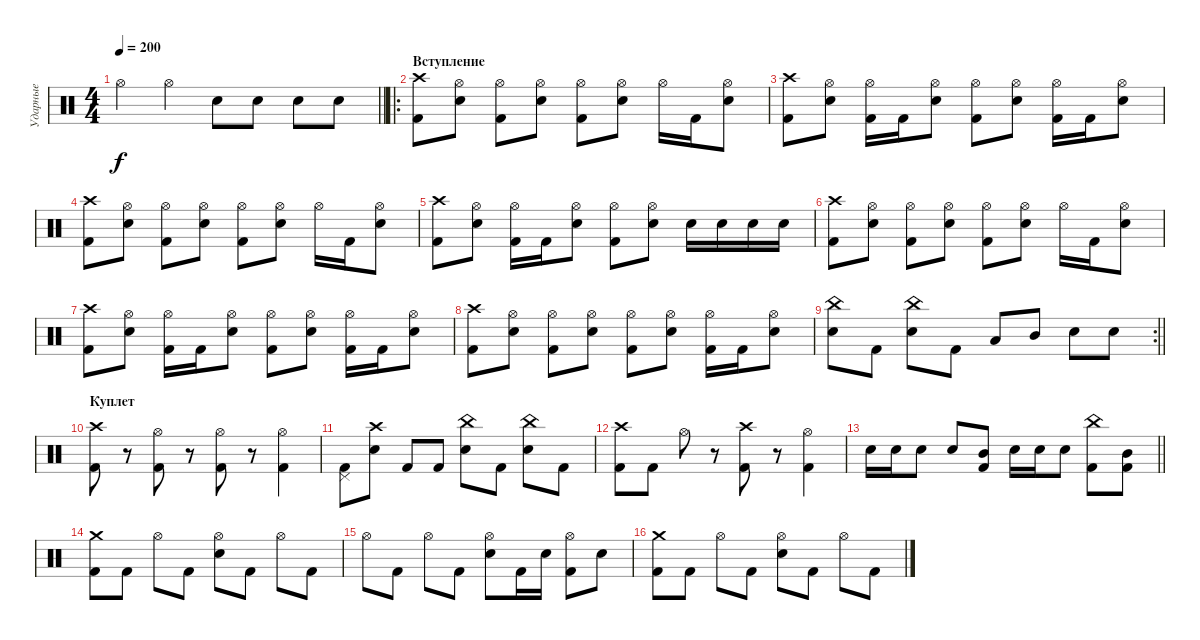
\track ("Ударные" "Ударные") {instrument percussion}
\staff {score}
\articulation defaults
\ts (4 4)
\tempo 200
\clef neutral
\barLineRight lightlight
\ks c "Hi-Hat (open)".4{dy f} "Hi-Hat (open)".4 "Electric Snare (hit)".8 "Electric Snare (hit)".8 "Electric Snare (hit)".8 "Electric Snare (hit)".8
|
\ro
\section ("" "Вступление")
("Crash high (hit)" "Kick (hit) 2").8 ("Hi-Hat (open)" "Electric Snare (hit)").8 ("Hi-Hat (open)" "Kick (hit) 2").8 ("Hi-Hat (open)" "Electric Snare (hit)").8 ("Hi-Hat (open)" "Kick (hit) 2").8 ("Hi-Hat (open)" "Electric Snare (hit)").8 "Hi-Hat (open)".16 "Kick (hit) 2".16 ("Hi-Hat (open)" "Electric Snare (hit)").8 |
("Crash high (hit)" "Kick (hit) 2").8 ("Hi-Hat (open)" "Electric Snare (hit)").8 ("Hi-Hat (open)" "Kick (hit) 2").16 "Kick (hit) 2".16 ("Hi-Hat (open)" "Electric Snare (hit)").8 ("Hi-Hat (open)" "Kick (hit) 2").8 ("Hi-Hat (open)" "Electric Snare (hit)").8 ("Hi-Hat (open)" "Kick (hit) 2").16 "Kick (hit) 2".16 ("Hi-Hat (open)" "Electric Snare (hit)").8 |
("Crash high (hit)" "Kick (hit) 2").8 ("Hi-Hat (open)" "Electric Snare (hit)").8 ("Hi-Hat (open)" "Kick (hit) 2").8 ("Hi-Hat (open)" "Electric Snare (hit)").8 ("Hi-Hat (open)" "Kick (hit) 2").8 ("Hi-Hat (open)" "Electric Snare (hit)").8 "Hi-Hat (open)".16 "Kick (hit) 2".16 ("Hi-Hat (open)" "Electric Snare (hit)").8 |
("Crash high (hit)" "Kick (hit) 2").8 ("Hi-Hat (open)" "Electric Snare (hit)").8 ("Hi-Hat (open)" "Kick (hit) 2").16 "Kick (hit) 2".16 ("Hi-Hat (open)" "Electric Snare (hit)").8 ("Hi-Hat (open)" "Kick (hit) 2").8 ("Hi-Hat (open)" "Electric Snare (hit)").8 "Electric Snare (hit)".16 "Electric Snare (hit)".16 "Electric Snare (hit)".16 "Electric Snare (hit)".16 |
("Crash high (hit)" "Kick (hit) 2").8 ("Hi-Hat (open)" "Electric Snare (hit)").8 ("Hi-Hat (open)" "Kick (hit) 2").8 ("Hi-Hat (open)" "Electric Snare (hit)").8 ("Hi-Hat (open)" "Kick (hit) 2").8 ("Hi-Hat (open)" "Electric Snare (hit)").8 "Hi-Hat (open)".16 "Kick (hit) 2".16 ("Hi-Hat (open)" "Electric Snare (hit)").8 |
("Crash high (hit)" "Kick (hit) 2").8 ("Hi-Hat (open)" "Electric Snare (hit)").8 ("Hi-Hat (open)" "Kick (hit) 2").16 "Kick (hit) 2".16 ("Hi-Hat (open)" "Electric Snare (hit)").8 ("Hi-Hat (open)" "Kick (hit) 2").8 ("Hi-Hat (open)" "Electric Snare (hit)").8 ("Hi-Hat (open)" "Kick (hit) 2").16 "Kick (hit) 2".16 ("Hi-Hat (open)" "Electric Snare (hit)").8 |
("Crash high (hit)" "Kick (hit) 2").8 ("Hi-Hat (open)" "Electric Snare (hit)").8 ("Hi-Hat (open)" "Kick (hit) 2").8 ("Hi-Hat (open)" "Electric Snare (hit)").8 ("Hi-Hat (open)" "Kick (hit) 2").8 ("Hi-Hat (open)" "Electric Snare (hit)").8 ("Hi-Hat (open)" "Kick (hit) 2").16 "Kick (hit) 2".16 ("Hi-Hat (open)" "Electric Snare (hit)").8 |
\rc 2
\barLineRight lightlight
("China (hit)" "Electric Snare (hit)").8 "Kick (hit) 2".8 ("China (hit)" "Electric Snare (hit)").8 "Kick (hit) 2".8 "Low Tom (hit)".8 "Mid Tom (hit)".8 "Electric Snare (hit)".8 "Electric Snare (hit)".8 |
\section ("" "Куплет")
("Kick (hit) 2" "Crash high (hit)").8 r.8 ("Kick (hit) 2" "Hi-Hat (open)").8 r.8 ("Kick (hit) 2" "Hi-Hat (open)").8 r.8 ("Kick (hit) 2" "Hi-Hat (open)").4 |
("Kick (hit) 2" "Pedal Hi-Hat (hit)").8 ("Electric Snare (hit)" "Crash high (hit)").8 "Kick (hit) 2".8 "Kick (hit) 2".8 ("Electric Snare (hit)" "China (hit)").8 "Kick (hit) 2".8 ("Electric Snare (hit)" "China (hit)").8 "Kick (hit) 2".8 |
("Kick (hit) 2" "Crash high (hit)").8 "Kick (hit) 2".8 "Hi-Hat (open)".8 r.8 ("Kick (hit) 2" "Crash high (hit)").8 r.8 ("Kick (hit) 2" "Hi-Hat (open)").4 |
\barLineRight lightlight "Electric Snare (hit)".16 "Electric Snare (hit)".16 "Electric Snare (hit)".8 "Electric Snare (hit)".8
("Kick (hit) 2" "Mid Tom (hit)").8 "Electric Snare (hit)".16 "Electric Snare (hit)".16 "Electric Snare (hit)".8 ("Kick (hit) 2" "China (hit)").8 ("Kick (hit) 2" "Mid Tom (hit)").8 |
("Crash medium (hit)" "Kick (hit) 2").8 "Kick (hit) 2".8 "Hi-Hat (open)".8 "Kick (hit) 2".8 ("Hi-Hat (open)" "Electric Snare (hit)").8 "Kick (hit) 2".8 "Hi-Hat (open)".8 "Kick (hit) 2".8 |
"Hi-Hat (open)".8 "Kick (hit) 2".8 "Hi-Hat (open)".8 "Kick (hit) 2".8 ("Hi-Hat (open)" "Electric Snare (hit)").8 "Kick (hit) 2".16 "Electric Snare (hit)".16 ("Hi-Hat (open)" "Kick (hit) 2").8 "Electric Snare (hit)".8 |
("Crash medium (hit)" "Kick (hit) 2").8 "Kick (hit) 2".8 "Hi-Hat (open)".8 "Kick (hit) 2".8 ("Hi-Hat (open)" "Electric Snare (hit)").8 "Kick (hit) 2".8 "Hi-Hat (open)".8 "Kick (hit) 2".8
